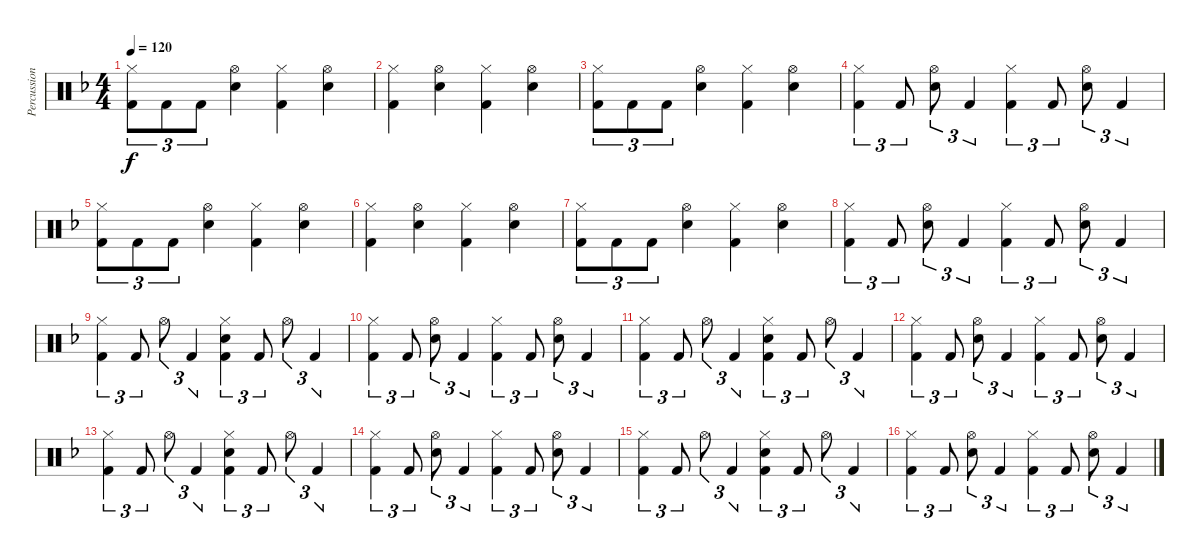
\track ("Percussion" "Percussion") {instrument percussion}
\staff {score}
\articulation defaults
\ts (4 4)
\tempo 120
\clef neutral
\ks dminor
("Hi-Hat (closed)" "Kick (hit) 2").8{tu (3 2) dy f} "Kick (hit) 2".8{tu (3 2)} "Kick (hit) 2".8{tu (3 2)} ("Hi-Hat (open)" "Electric Snare (hit)").4 ("Hi-Hat (closed)" "Kick (hit) 2").4 ("Hi-Hat (open)" "Electric Snare (hit)").4 |
("Hi-Hat (closed)" "Kick (hit) 2").4 ("Hi-Hat (open)" "Electric Snare (hit)").4 ("Hi-Hat (closed)" "Kick (hit) 2").4 ("Hi-Hat (open)" "Electric Snare (hit)").4 |
("Hi-Hat (closed)" "Kick (hit) 2").8{tu (3 2)} "Kick (hit) 2".8{tu (3 2)} "Kick (hit) 2".8{tu (3 2)} ("Hi-Hat (open)" "Electric Snare (hit)").4 ("Hi-Hat (closed)" "Kick (hit) 2").4 ("Hi-Hat (open)" "Electric Snare (hit)").4 |
("Hi-Hat (closed)" "Kick (hit) 2").4{tu (3 2)} "Kick (hit) 2".8{tu (3 2)} ("Hi-Hat (open)" "Electric Snare (hit)").8{tu (3 2)} "Kick (hit) 2".4{tu (3 2)} ("Hi-Hat (closed)" "Kick (hit) 2").4{tu (3 2)} "Kick (hit) 2".8{tu (3 2)} ("Hi-Hat (open)" "Electric Snare (hit)").8{tu (3 2)} "Kick (hit) 2".4{tu (3 2)} |
("Hi-Hat (closed)" "Kick (hit) 2").8{tu (3 2)} "Kick (hit) 2".8{tu (3 2)} "Kick (hit) 2".8{tu (3 2)} ("Hi-Hat (open)" "Electric Snare (hit)").4 ("Hi-Hat (closed)" "Kick (hit) 2").4 ("Hi-Hat (open)" "Electric Snare (hit)").4 |
("Hi-Hat (closed)" "Kick (hit) 2").4 ("Hi-Hat (open)" "Electric Snare (hit)").4 ("Hi-Hat (closed)" "Kick (hit) 2").4 ("Hi-Hat (open)" "Electric Snare (hit)").4 |
("Hi-Hat (closed)" "Kick (hit) 2").8{tu (3 2)} "Kick (hit) 2".8{tu (3 2)} "Kick (hit) 2".8{tu (3 2)} ("Hi-Hat (open)" "Electric Snare (hit)").4 ("Hi-Hat (closed)" "Kick (hit) 2").4 ("Hi-Hat (open)" "Electric Snare (hit)").4 |
("Hi-Hat (closed)" "Kick (hit) 2").4{tu (3 2)} "Kick (hit) 2".8{tu (3 2)} ("Hi-Hat (open)" "Electric Snare (hit)").8{tu (3 2)} "Kick (hit) 2".4{tu (3 2)} ("Hi-Hat (closed)" "Kick (hit) 2").4{tu (3 2)} "Kick (hit) 2".8{tu (3 2)} ("Hi-Hat (open)" "Electric Snare (hit)").8{tu (3 2)} "Kick (hit) 2".4{tu (3 2)} |
("Hi-Hat (closed)" "Kick (hit) 2").4{tu (3 2)} "Kick (hit) 2".8{tu (3 2)} "Hi-Hat (open)".8{tu (3 2)} "Kick (hit) 2".4{tu (3 2)} ("Hi-Hat (closed)" "Electric Snare (hit)" "Kick (hit) 2").4{tu (3 2)} "Kick (hit) 2".8{tu (3 2)} "Hi-Hat (open)".8{tu (3 2)} "Kick (hit) 2".4{tu (3 2)} |
("Hi-Hat (closed)" "Kick (hit) 2").4{tu (3 2)} "Kick (hit) 2".8{tu (3 2)} ("Hi-Hat (open)" "Electric Snare (hit)").8{tu (3 2)} "Kick (hit) 2".4{tu (3 2)} ("Hi-Hat (closed)" "Kick (hit) 2").4{tu (3 2)} "Kick (hit) 2".8{tu (3 2)} ("Hi-Hat (open)" "Electric Snare (hit)").8{tu (3 2)} "Kick (hit) 2".4{tu (3 2)} |
("Hi-Hat (closed)" "Kick (hit) 2").4{tu (3 2)} "Kick (hit) 2".8{tu (3 2)} "Hi-Hat (open)".8{tu (3 2)} "Kick (hit) 2".4{tu (3 2)} ("Hi-Hat (closed)" "Electric Snare (hit)" "Kick (hit) 2").4{tu (3 2)} "Kick (hit) 2".8{tu (3 2)} "Hi-Hat (open)".8{tu (3 2)} "Kick (hit) 2".4{tu (3 2)} |
("Hi-Hat (closed)" "Kick (hit) 2").4{tu (3 2)} "Kick (hit) 2".8{tu (3 2)} ("Hi-Hat (open)" "Electric Snare (hit)").8{tu (3 2)} "Kick (hit) 2".4{tu (3 2)} ("Hi-Hat (closed)" "Kick (hit) 2").4{tu (3 2)} "Kick (hit) 2".8{tu (3 2)} ("Hi-Hat (open)" "Electric Snare (hit)").8{tu (3 2)} "Kick (hit) 2".4{tu (3 2)} |
("Hi-Hat (closed)" "Kick (hit) 2").4{tu (3 2)} "Kick (hit) 2".8{tu (3 2)} "Hi-Hat (open)".8{tu (3 2)} "Kick (hit) 2".4{tu (3 2)} ("Hi-Hat (closed)" "Electric Snare (hit)" "Kick (hit) 2").4{tu (3 2)} "Kick (hit) 2".8{tu (3 2)} "Hi-Hat (open)".8{tu (3 2)} "Kick (hit) 2".4{tu (3 2)} |
("Hi-Hat (closed)" "Kick (hit) 2").4{tu (3 2)} "Kick (hit) 2".8{tu (3 2)} ("Hi-Hat (open)" "Electric Snare (hit)").8{tu (3 2)} "Kick (hit) 2".4{tu (3 2)} ("Hi-Hat (closed)" "Kick (hit) 2").4{tu (3 2)} "Kick (hit) 2".8{tu (3 2)} ("Hi-Hat (open)" "Electric Snare (hit)").8{tu (3 2)} "Kick (hit) 2".4{tu (3 2)} |
("Hi-Hat (closed)" "Kick (hit) 2").4{tu (3 2)} "Kick (hit) 2".8{tu (3 2)} "Hi-Hat (open)".8{tu (3 2)} "Kick (hit) 2".4{tu (3 2)} ("Hi-Hat (closed)" "Electric Snare (hit)" "Kick (hit) 2").4{tu (3 2)} "Kick (hit) 2".8{tu (3 2)} "Hi-Hat (open)".8{tu (3 2)} "Kick (hit) 2".4{tu (3 2)} |
("Hi-Hat (closed)" "Kick (hit) 2").4{tu (3 2)} "Kick (hit) 2".8{tu (3 2)} ("Hi-Hat (open)" "Electric Snare (hit)").8{tu (3 2)} "Kick (hit) 2".4{tu (3 2)} ("Hi-Hat (closed)" "Kick (hit) 2").4{tu (3 2)} "Kick (hit) 2".8{tu (3 2)} ("Hi-Hat (open)" "Electric Snare (hit)").8{tu (3 2)} "Kick (hit) 2".4{tu (3 2)}
